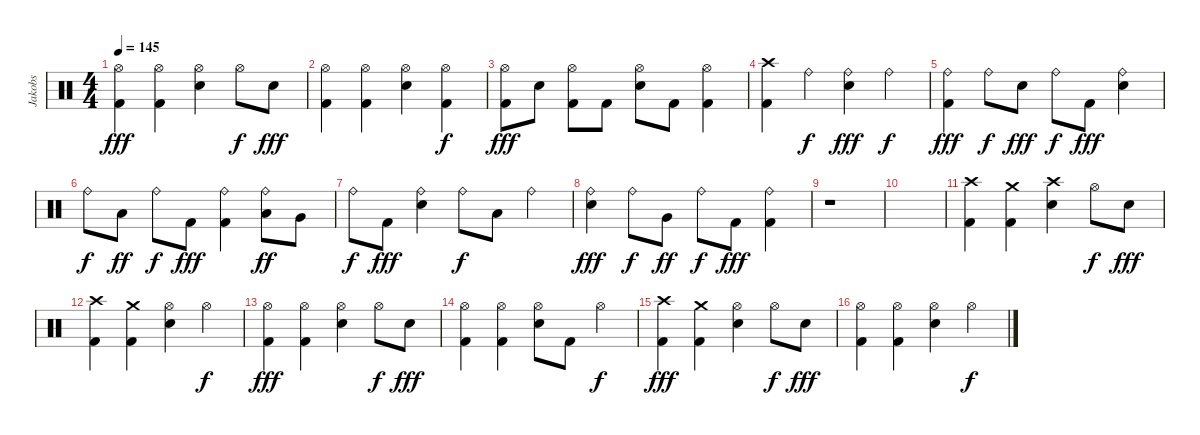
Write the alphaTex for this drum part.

\track ("Jakobs" "Jakobs") {instrument percussion}
\staff {score}
\articulation defaults
\ts (4 4)
\tempo 145
\clef neutral
\ks c
("Hi-Hat (open)" "Kick (hit) 2").4{dy fff} ("Hi-Hat (open)" "Kick (hit) 2").4 ("Hi-Hat (open)" "Snare (hit) 2").4 "Hi-Hat (open)".8{dy f} "Snare (hit) 2".8{dy fff} |
("Hi-Hat (open)" "Kick (hit) 2").4 ("Hi-Hat (open)" "Kick (hit) 2").4 ("Hi-Hat (open)" "Snare (hit) 2").4 ("Hi-Hat (open)" "Kick (hit) 2").4{dy f} |
("Hi-Hat (open)" "Kick (hit) 2").8{dy fff} "Snare (hit) 2".8 ("Hi-Hat (open)" "Kick (hit) 2").8 "Kick (hit) 2".8 ("Hi-Hat (open)" "Snare (hit) 2").8 "Kick (hit) 2".8 ("Hi-Hat (open)" "Kick (hit) 2").4 |
("Crash high (hit)" "Kick (hit) 2").4 "Ride (bell)".4{dy f} ("Ride (bell)" "Snare (hit) 2").4{dy fff} "Ride (bell)".4{dy f} |
("Ride (bell)" "Kick (hit) 2").4{dy fff volume 0} "Ride (bell)".8{dy f} "Snare (hit) 2".8{dy fff} "Ride (bell)".8{dy f} "Kick (hit) 2".8{dy fff} ("Ride (bell)" "Snare (hit) 2").4 |
"Ride (bell)".8{dy f} "Low Tom (hit)".8{dy ff} "Ride (bell)".8{dy f} "Kick (hit) 2".8{dy fff} ("Ride (bell)" "Kick (hit) 2").4 ("Ride (bell)" "Low Tom (hit)").8{dy ff} "Very Low Tom (hit)".8 |
"Ride (bell)".8{dy f} "Kick (hit) 2".8{dy fff} ("Ride (bell)" "Snare (hit) 2").4 "Ride (bell)".8{dy f} "Low Tom (hit)".8 "Ride (bell)".4 |
("Ride (bell)" "Snare (hit) 2").4{dy fff} "Ride (bell)".8{dy f} "Very Low Tom (hit)".8{dy ff} "Ride (bell)".8{dy f} "Kick (hit) 2".8{dy fff} ("Ride (bell)" "Kick (hit) 2").4 |
r.1 |
|
("Crash high (hit)" "Kick (hit) 2").4 ("Crash medium (hit)" "Kick (hit) 2").4 ("Crash high (hit)" "Snare (hit) 2").4 "Hi-Hat (open)".8{dy f} "Snare (hit) 2".8{dy fff} |
("Crash high (hit)" "Kick (hit) 2").4 ("Crash medium (hit)" "Kick (hit) 2").4 ("Hi-Hat (open)" "Snare (hit) 2").4 "Hi-Hat (open)".4{dy f} |
("Hi-Hat (open)" "Kick (hit) 2").4{dy fff} ("Hi-Hat (open)" "Kick (hit) 2").4 ("Hi-Hat (open)" "Snare (hit) 2").4 "Hi-Hat (open)".8{dy f} "Snare (hit) 2".8{dy fff} |
("Hi-Hat (open)" "Kick (hit) 2").4 ("Hi-Hat (open)" "Kick (hit) 2").4 ("Hi-Hat (open)" "Snare (hit) 2").8 "Kick (hit) 2".8 "Hi-Hat (open)".4{dy f} |
("Crash high (hit)" "Kick (hit) 2").4{dy fff} ("Crash medium (hit)" "Kick (hit) 2").4 ("Hi-Hat (open)" "Snare (hit) 2").4 "Hi-Hat (open)".8{dy f} "Snare (hit) 2".8{dy fff} |
("Hi-Hat (open)" "Kick (hit) 2").4 ("Hi-Hat (open)" "Kick (hit) 2").4 ("Hi-Hat (open)" "Snare (hit) 2").4 "Hi-Hat (open)".4{dy f}
